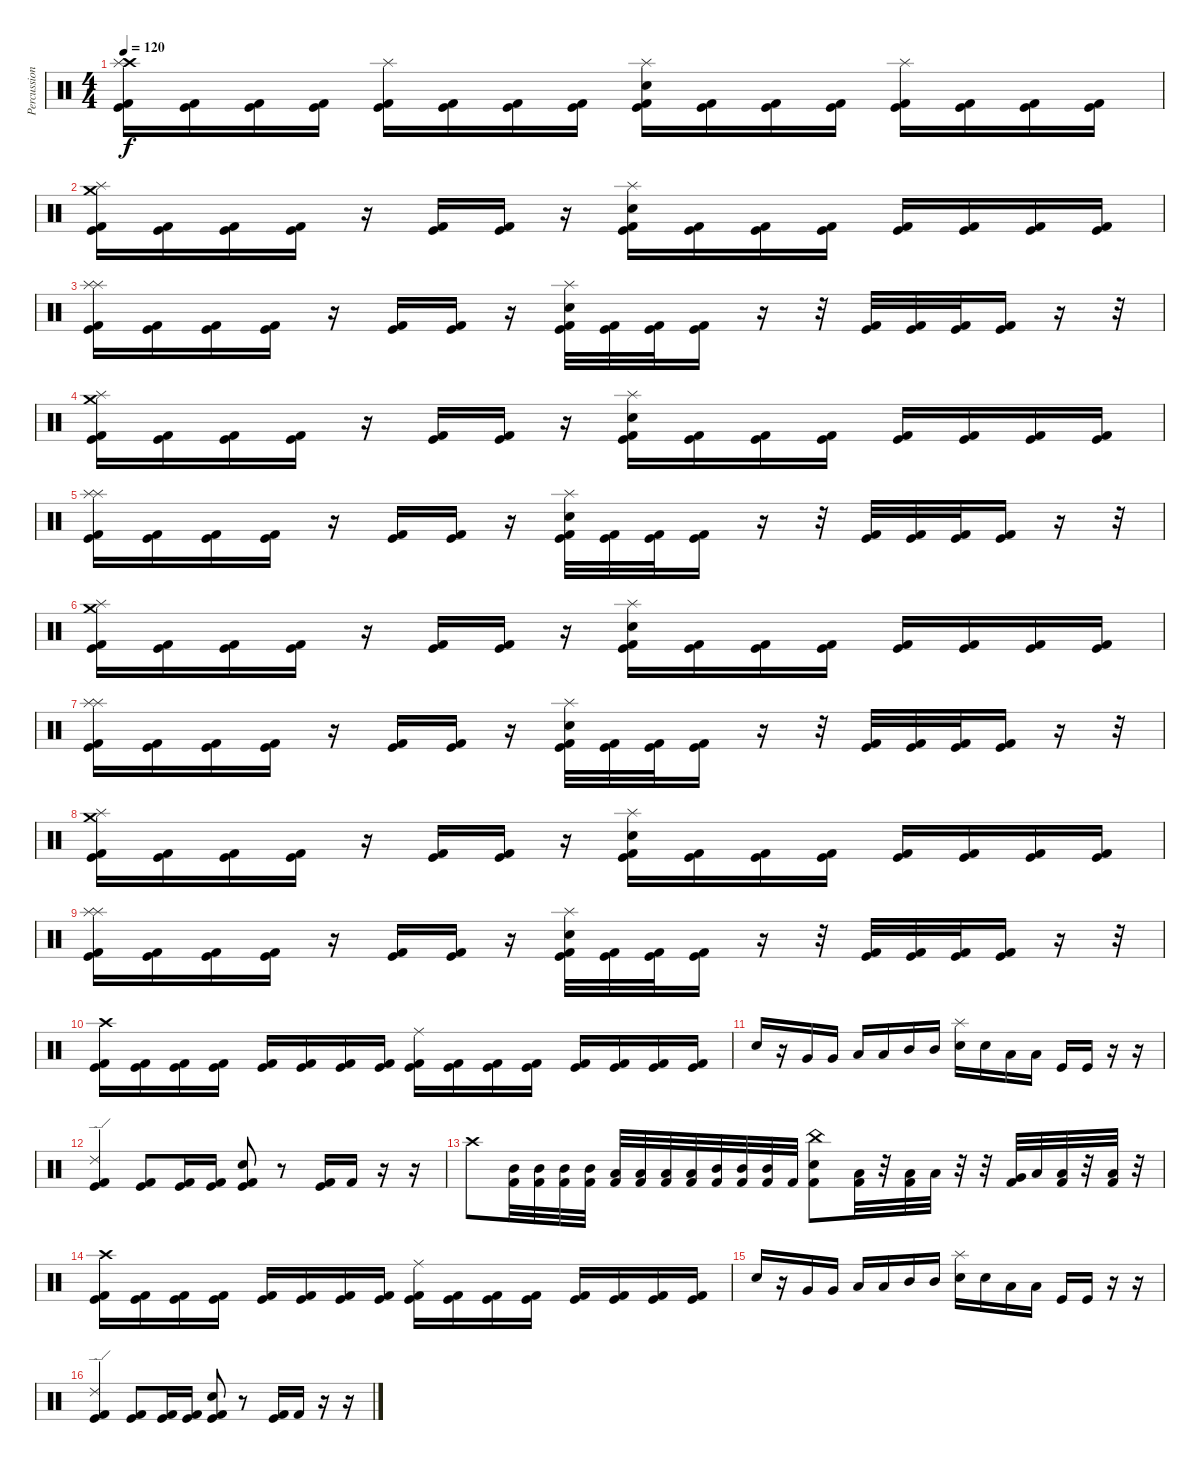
\track ("Percussion" "Percussion") {instrument percussion}
\staff {score}
\articulation defaults
\ts (4 4)
\tempo 120
\clef neutral
\ks c
("Crash high (hit)" "Splash (hit)" "Kick (hit)" "Kick (hit) 2").16{dy f} ("Kick (hit)" "Kick (hit) 2").16 ("Kick (hit)" "Kick (hit) 2").16 ("Kick (hit)" "Kick (hit) 2").16 ("Splash (hit)" "Kick (hit)" "Kick (hit) 2").16 ("Kick (hit)" "Kick (hit) 2").16 ("Kick (hit)" "Kick (hit) 2").16 ("Kick (hit)" "Kick (hit) 2").16 ("Splash (hit)" "Kick (hit)" "Electric Snare (hit)" "Kick (hit) 2").16 ("Kick (hit)" "Kick (hit) 2").16 ("Kick (hit)" "Kick (hit) 2").16 ("Kick (hit)" "Kick (hit) 2").16 ("Splash (hit)" "Kick (hit)" "Kick (hit) 2").16 ("Kick (hit)" "Kick (hit) 2").16 ("Kick (hit)" "Kick (hit) 2").16 ("Kick (hit)" "Kick (hit) 2").16 |
("Crash medium (hit)" "Splash (hit)" "Kick (hit)" "Kick (hit) 2").16 ("Kick (hit)" "Kick (hit) 2").16 ("Kick (hit)" "Kick (hit) 2").16 ("Kick (hit)" "Kick (hit) 2").16 r.16 ("Kick (hit)" "Kick (hit) 2").16 ("Kick (hit)" "Kick (hit) 2").16 r.16 ("Splash (hit)" "Electric Snare (hit)" "Kick (hit)" "Kick (hit) 2").16 ("Kick (hit)" "Kick (hit) 2").16 ("Kick (hit)" "Kick (hit) 2").16 ("Kick (hit)" "Kick (hit) 2").16 ("Kick (hit)" "Kick (hit) 2").16 ("Kick (hit)" "Kick (hit) 2").16 ("Kick (hit)" "Kick (hit) 2").16 ("Kick (hit)" "Kick (hit) 2").16 |
("Splash (hit)" "Splash (hit)" "Kick (hit)" "Kick (hit) 2").16 ("Kick (hit)" "Kick (hit) 2").16 ("Kick (hit)" "Kick (hit) 2").16 ("Kick (hit)" "Kick (hit) 2").16 r.16 ("Kick (hit)" "Kick (hit) 2").16 ("Kick (hit)" "Kick (hit) 2").16 r.16 ("Splash (hit)" "Electric Snare (hit)" "Kick (hit)" "Kick (hit) 2").32 ("Kick (hit)" "Kick (hit) 2").32 ("Kick (hit)" "Kick (hit) 2").32 ("Kick (hit)" "Kick (hit) 2").16 r.16 r.32 ("Kick (hit)" "Kick (hit) 2").32 ("Kick (hit)" "Kick (hit) 2").32 ("Kick (hit)" "Kick (hit) 2").32 ("Kick (hit)" "Kick (hit) 2").16 r.16 r.32 |
("Crash medium (hit)" "Splash (hit)" "Kick (hit)" "Kick (hit) 2").16 ("Kick (hit)" "Kick (hit) 2").16 ("Kick (hit)" "Kick (hit) 2").16 ("Kick (hit)" "Kick (hit) 2").16 r.16 ("Kick (hit)" "Kick (hit) 2").16 ("Kick (hit)" "Kick (hit) 2").16 r.16 ("Splash (hit)" "Electric Snare (hit)" "Kick (hit)" "Kick (hit) 2").16 ("Kick (hit)" "Kick (hit) 2").16 ("Kick (hit)" "Kick (hit) 2").16 ("Kick (hit)" "Kick (hit) 2").16 ("Kick (hit)" "Kick (hit) 2").16 ("Kick (hit)" "Kick (hit) 2").16 ("Kick (hit)" "Kick (hit) 2").16 ("Kick (hit)" "Kick (hit) 2").16 |
("Splash (hit)" "Splash (hit)" "Kick (hit)" "Kick (hit) 2").16 ("Kick (hit)" "Kick (hit) 2").16 ("Kick (hit)" "Kick (hit) 2").16 ("Kick (hit)" "Kick (hit) 2").16 r.16 ("Kick (hit)" "Kick (hit) 2").16 ("Kick (hit)" "Kick (hit) 2").16 r.16 ("Splash (hit)" "Electric Snare (hit)" "Kick (hit)" "Kick (hit) 2").32 ("Kick (hit)" "Kick (hit) 2").32 ("Kick (hit)" "Kick (hit) 2").32 ("Kick (hit)" "Kick (hit) 2").16 r.16 r.32 ("Kick (hit)" "Kick (hit) 2").32 ("Kick (hit)" "Kick (hit) 2").32 ("Kick (hit)" "Kick (hit) 2").32 ("Kick (hit)" "Kick (hit) 2").16 r.16 r.32 |
("Crash medium (hit)" "Splash (hit)" "Kick (hit)" "Kick (hit) 2").16 ("Kick (hit)" "Kick (hit) 2").16 ("Kick (hit)" "Kick (hit) 2").16 ("Kick (hit)" "Kick (hit) 2").16 r.16 ("Kick (hit)" "Kick (hit) 2").16 ("Kick (hit)" "Kick (hit) 2").16 r.16 ("Splash (hit)" "Electric Snare (hit)" "Kick (hit)" "Kick (hit) 2").16 ("Kick (hit)" "Kick (hit) 2").16 ("Kick (hit)" "Kick (hit) 2").16 ("Kick (hit)" "Kick (hit) 2").16 ("Kick (hit)" "Kick (hit) 2").16 ("Kick (hit)" "Kick (hit) 2").16 ("Kick (hit)" "Kick (hit) 2").16 ("Kick (hit)" "Kick (hit) 2").16 |
("Splash (hit)" "Splash (hit)" "Kick (hit)" "Kick (hit) 2").16 ("Kick (hit)" "Kick (hit) 2").16 ("Kick (hit)" "Kick (hit) 2").16 ("Kick (hit)" "Kick (hit) 2").16 r.16 ("Kick (hit)" "Kick (hit) 2").16 ("Kick (hit)" "Kick (hit) 2").16 r.16 ("Splash (hit)" "Electric Snare (hit)" "Kick (hit)" "Kick (hit) 2").32 ("Kick (hit)" "Kick (hit) 2").32 ("Kick (hit)" "Kick (hit) 2").32 ("Kick (hit)" "Kick (hit) 2").16 r.16 r.32 ("Kick (hit)" "Kick (hit) 2").32 ("Kick (hit)" "Kick (hit) 2").32 ("Kick (hit)" "Kick (hit) 2").32 ("Kick (hit)" "Kick (hit) 2").16 r.16 r.32 |
("Crash medium (hit)" "Splash (hit)" "Kick (hit)" "Kick (hit) 2").16 ("Kick (hit)" "Kick (hit) 2").16 ("Kick (hit)" "Kick (hit) 2").16 ("Kick (hit)" "Kick (hit) 2").16 r.16 ("Kick (hit)" "Kick (hit) 2").16 ("Kick (hit)" "Kick (hit) 2").16 r.16 ("Splash (hit)" "Electric Snare (hit)" "Kick (hit)" "Kick (hit) 2").16 ("Kick (hit)" "Kick (hit) 2").16 ("Kick (hit)" "Kick (hit) 2").16 ("Kick (hit)" "Kick (hit) 2").16 ("Kick (hit)" "Kick (hit) 2").16 ("Kick (hit)" "Kick (hit) 2").16 ("Kick (hit)" "Kick (hit) 2").16 ("Kick (hit)" "Kick (hit) 2").16 |
("Splash (hit)" "Splash (hit)" "Kick (hit)" "Kick (hit) 2").16 ("Kick (hit)" "Kick (hit) 2").16 ("Kick (hit)" "Kick (hit) 2").16 ("Kick (hit)" "Kick (hit) 2").16 r.16 ("Kick (hit)" "Kick (hit) 2").16 ("Kick (hit)" "Kick (hit) 2").16 r.16 ("Splash (hit)" "Electric Snare (hit)" "Kick (hit)" "Kick (hit) 2").32 ("Kick (hit)" "Kick (hit) 2").32 ("Kick (hit)" "Kick (hit) 2").32 ("Kick (hit)" "Kick (hit) 2").16 r.16 r.32 ("Kick (hit)" "Kick (hit) 2").32 ("Kick (hit)" "Kick (hit) 2").32 ("Kick (hit)" "Kick (hit) 2").32 ("Kick (hit)" "Kick (hit) 2").16 r.16 r.32 |
("Kick (hit)" "Crash high (hit)" "Kick (hit) 2").16 ("Kick (hit)" "Kick (hit) 2").16 ("Kick (hit)" "Kick (hit) 2").16 ("Kick (hit)" "Kick (hit) 2").16 ("Kick (hit)" "Kick (hit) 2").16 ("Kick (hit)" "Kick (hit) 2").16 ("Kick (hit)" "Kick (hit) 2").16 ("Kick (hit)" "Kick (hit) 2").16 ("Kick (hit)" "Ride (middle)" "Kick (hit) 2").16 ("Kick (hit)" "Kick (hit) 2").16 ("Kick (hit)" "Kick (hit) 2").16 ("Kick (hit)" "Kick (hit) 2").16 ("Kick (hit)" "Kick (hit) 2").16 ("Kick (hit)" "Kick (hit) 2").16 ("Kick (hit)" "Kick (hit) 2").16 ("Kick (hit)" "Kick (hit) 2").16 |
"Electric Snare (hit)".16 r.16 "Very Low Tom (hit)".16 "Very Low Tom (hit)".16 "Low Tom (hit)".16 "Low Tom (hit)".16 "Mid Tom (hit)".16 "Mid Tom (hit)".16 ("Splash (hit)" "Electric Snare (hit)").16 "Electric Snare (hit)".16 "Low Tom (hit)".16 "Low Tom (hit)".16 "Kick (hit)".16 "Kick (hit)".16 r.16 r.16 |
("Ride (edge) 2" "Kick (hit)" "Kick (hit) 2").4 ("Kick (hit)" "Kick (hit) 2").8 ("Kick (hit)" "Kick (hit) 2").16 ("Kick (hit)" "Kick (hit) 2").16 ("Kick (hit)" "Electric Snare (hit)" "Kick (hit) 2").8 r.8 ("Kick (hit)" "Kick (hit) 2").16 "Kick (hit) 2".16 r.16 r.16 |
"Crash high (hit)".8 ("Mid Tom (hit)" "Kick (hit) 2").32 ("Mid Tom (hit)" "Kick (hit) 2").32 ("Mid Tom (hit)" "Kick (hit) 2").32 ("Mid Tom (hit)" "Kick (hit) 2").32 ("Low Tom (hit)" "Kick (hit) 2").32 ("Low Tom (hit)" "Kick (hit) 2").32 ("Low Tom (hit)" "Kick (hit) 2").32 ("Low Tom (hit)" "Kick (hit) 2").32 ("Mid Tom (hit)" "Kick (hit) 2").32 ("Mid Tom (hit)" "Kick (hit) 2").32 ("Mid Tom (hit)" "Kick (hit) 2").32 "Kick (hit) 2".32 ("China (hit)" "Electric Snare (hit)" "Kick (hit) 2").8 ("Low Tom (hit)" "Kick (hit) 2").32 r.32 ("Low Tom (hit)" "Kick (hit) 2").32 "Low Tom (hit)".32 r.32 r.32 ("Very Low Tom (hit)" "Kick (hit) 2").32 "Low Tom (hit)".32 ("Low Tom (hit)" "Kick (hit) 2").32 r.32 ("Low Tom (hit)" "Kick (hit) 2").32 r.32 |
("Kick (hit)" "Crash high (hit)" "Kick (hit) 2").16 ("Kick (hit)" "Kick (hit) 2").16 ("Kick (hit)" "Kick (hit) 2").16 ("Kick (hit)" "Kick (hit) 2").16 ("Kick (hit)" "Kick (hit) 2").16 ("Kick (hit)" "Kick (hit) 2").16 ("Kick (hit)" "Kick (hit) 2").16 ("Kick (hit)" "Kick (hit) 2").16 ("Kick (hit)" "Ride (middle)" "Kick (hit) 2").16 ("Kick (hit)" "Kick (hit) 2").16 ("Kick (hit)" "Kick (hit) 2").16 ("Kick (hit)" "Kick (hit) 2").16 ("Kick (hit)" "Kick (hit) 2").16 ("Kick (hit)" "Kick (hit) 2").16 ("Kick (hit)" "Kick (hit) 2").16 ("Kick (hit)" "Kick (hit) 2").16 |
"Electric Snare (hit)".16 r.16 "Very Low Tom (hit)".16 "Very Low Tom (hit)".16 "Low Tom (hit)".16 "Low Tom (hit)".16 "Mid Tom (hit)".16 "Mid Tom (hit)".16 ("Splash (hit)" "Electric Snare (hit)").16 "Electric Snare (hit)".16 "Low Tom (hit)".16 "Low Tom (hit)".16 "Kick (hit)".16 "Kick (hit)".16 r.16 r.16 |
("Ride (edge) 2" "Kick (hit)" "Kick (hit) 2").4 ("Kick (hit)" "Kick (hit) 2").8 ("Kick (hit)" "Kick (hit) 2").16 ("Kick (hit)" "Kick (hit) 2").16 ("Kick (hit)" "Electric Snare (hit)" "Kick (hit) 2").8 r.8 ("Kick (hit)" "Kick (hit) 2").16 "Kick (hit) 2".16 r.16 r.16
